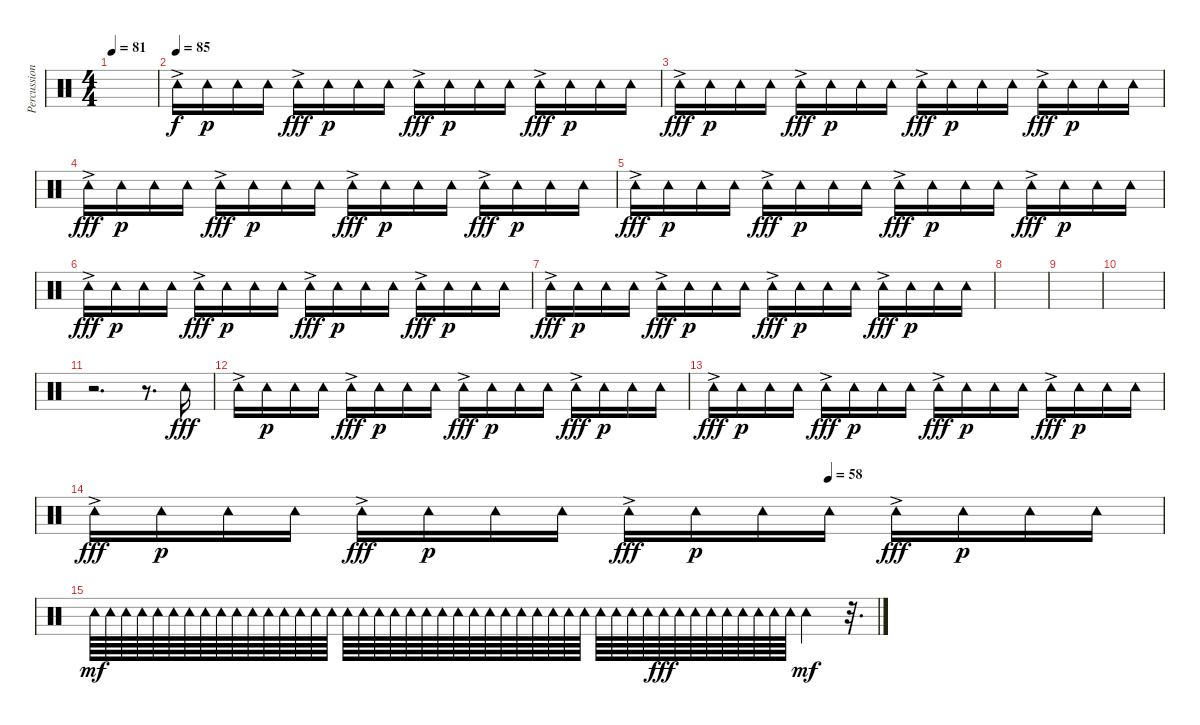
\track ("Percussion" "Percussion") {instrument percussion}
\staff {score}
\articulation defaults
\ts (4 4)
\tempo 81
\clef neutral
\ks c
|
\tempo (85)
"Tambourine (hit)"{ac}.16 "Tambourine (hit)".16{dy p} "Tambourine (hit)".16 "Tambourine (hit)".16 "Tambourine (hit)"{ac}.16{dy fff} "Tambourine (hit)".16{dy p} "Tambourine (hit)".16 "Tambourine (hit)".16 "Tambourine (hit)"{ac}.16{dy fff} "Tambourine (hit)".16{dy p} "Tambourine (hit)".16 "Tambourine (hit)".16 "Tambourine (hit)"{ac}.16{dy fff} "Tambourine (hit)".16{dy p} "Tambourine (hit)".16 "Tambourine (hit)".16 |
"Tambourine (hit)"{ac}.16{dy fff} "Tambourine (hit)".16{dy p} "Tambourine (hit)".16 "Tambourine (hit)".16 "Tambourine (hit)"{ac}.16{dy fff} "Tambourine (hit)".16{dy p} "Tambourine (hit)".16 "Tambourine (hit)".16 "Tambourine (hit)"{ac}.16{dy fff} "Tambourine (hit)".16{dy p} "Tambourine (hit)".16 "Tambourine (hit)".16 "Tambourine (hit)"{ac}.16{dy fff} "Tambourine (hit)".16{dy p} "Tambourine (hit)".16 "Tambourine (hit)".16 |
"Tambourine (hit)"{ac}.16{dy fff} "Tambourine (hit)".16{dy p} "Tambourine (hit)".16 "Tambourine (hit)".16 "Tambourine (hit)"{ac}.16{dy fff} "Tambourine (hit)".16{dy p} "Tambourine (hit)".16 "Tambourine (hit)".16 "Tambourine (hit)"{ac}.16{dy fff} "Tambourine (hit)".16{dy p} "Tambourine (hit)".16 "Tambourine (hit)".16 "Tambourine (hit)"{ac}.16{dy fff} "Tambourine (hit)".16{dy p} "Tambourine (hit)".16 "Tambourine (hit)".16 |
"Tambourine (hit)"{ac}.16{dy fff} "Tambourine (hit)".16{dy p} "Tambourine (hit)".16 "Tambourine (hit)".16 "Tambourine (hit)"{ac}.16{dy fff} "Tambourine (hit)".16{dy p} "Tambourine (hit)".16 "Tambourine (hit)".16 "Tambourine (hit)"{ac}.16{dy fff} "Tambourine (hit)".16{dy p} "Tambourine (hit)".16 "Tambourine (hit)".16 "Tambourine (hit)"{ac}.16{dy fff} "Tambourine (hit)".16{dy p} "Tambourine (hit)".16 "Tambourine (hit)".16 |
"Tambourine (hit)"{ac}.16{dy fff} "Tambourine (hit)".16{dy p} "Tambourine (hit)".16 "Tambourine (hit)".16 "Tambourine (hit)"{ac}.16{dy fff} "Tambourine (hit)".16{dy p} "Tambourine (hit)".16 "Tambourine (hit)".16 "Tambourine (hit)"{ac}.16{dy fff} "Tambourine (hit)".16{dy p} "Tambourine (hit)".16 "Tambourine (hit)".16 "Tambourine (hit)"{ac}.16{dy fff} "Tambourine (hit)".16{dy p} "Tambourine (hit)".16 "Tambourine (hit)".16 |
"Tambourine (hit)"{ac}.16{dy fff} "Tambourine (hit)".16{dy p} "Tambourine (hit)".16 "Tambourine (hit)".16 "Tambourine (hit)"{ac}.16{dy fff} "Tambourine (hit)".16{dy p} "Tambourine (hit)".16 "Tambourine (hit)".16 "Tambourine (hit)"{ac}.16{dy fff} "Tambourine (hit)".16{dy p} "Tambourine (hit)".16 "Tambourine (hit)".16 "Tambourine (hit)"{ac}.16{dy fff} "Tambourine (hit)".16{dy p} "Tambourine (hit)".16 "Tambourine (hit)".16 |
|
|
|
r.2{d} r.8{d} "Tambourine (hit)".16{dy fff} |
"Tambourine (hit)"{ac}.16 "Tambourine (hit)".16{dy p} "Tambourine (hit)".16 "Tambourine (hit)".16 "Tambourine (hit)"{ac}.16{dy fff} "Tambourine (hit)".16{dy p} "Tambourine (hit)".16 "Tambourine (hit)".16 "Tambourine (hit)"{ac}.16{dy fff} "Tambourine (hit)".16{dy p} "Tambourine (hit)".16 "Tambourine (hit)".16 "Tambourine (hit)"{ac}.16{dy fff} "Tambourine (hit)".16{dy p} "Tambourine (hit)".16 "Tambourine (hit)".16 |
"Tambourine (hit)"{ac}.16{dy fff} "Tambourine (hit)".16{dy p} "Tambourine (hit)".16 "Tambourine (hit)".16 "Tambourine (hit)"{ac}.16{dy fff} "Tambourine (hit)".16{dy p} "Tambourine (hit)".16 "Tambourine (hit)".16 "Tambourine (hit)"{ac}.16{dy fff} "Tambourine (hit)".16{dy p} "Tambourine (hit)".16 "Tambourine (hit)".16 "Tambourine (hit)"{ac}.16{dy fff} "Tambourine (hit)".16{dy p} "Tambourine (hit)".16 "Tambourine (hit)".16 |
\tempo (58 0.6875)
"Tambourine (hit)"{ac}.16{dy fff} "Tambourine (hit)".16{dy p} "Tambourine (hit)".16 "Tambourine (hit)".16 "Tambourine (hit)"{ac}.16{dy fff} "Tambourine (hit)".16{dy p} "Tambourine (hit)".16 "Tambourine (hit)".16 "Tambourine (hit)"{ac}.16{dy fff} "Tambourine (hit)".16{dy p} "Tambourine (hit)".16 "Tambourine (hit)".16 "Tambourine (hit)"{ac}.16{dy fff} "Tambourine (hit)".16{dy p} "Tambourine (hit)".16 "Tambourine (hit)".16 |
"Tambourine (hit)".64{dy mf volume 10} "Tambourine (hit)".64 "Tambourine (hit)".64 "Tambourine (hit)".64 "Tambourine (hit)".64 "Tambourine (hit)".64 "Tambourine (hit)".64 "Tambourine (hit)".64 "Tambourine (hit)".64 "Tambourine (hit)".64 "Tambourine (hit)".64 "Tambourine (hit)".64 "Tambourine (hit)".64 "Tambourine (hit)".64 "Tambourine (hit)".64 "Tambourine (hit)".64 "Tambourine (hit)".64 "Tambourine (hit)".64 "Tambourine (hit)".64 "Tambourine (hit)".64 "Tambourine (hit)".64 "Tambourine (hit)".64 "Tambourine (hit)".64 "Tambourine (hit)".64 "Tambourine (hit)".64 "Tambourine (hit)".64 "Tambourine (hit)".64 "Tambourine (hit)".64 "Tambourine (hit)".64 "Tambourine (hit)".64 "Tambourine (hit)".64 "Tambourine (hit)".64 "Tambourine (hit)".64 "Tambourine (hit)".64 "Tambourine (hit)".64 "Tambourine (hit)".64 "Tambourine (hit)".64{dy fff} "Tambourine (hit)".64 "Tambourine (hit)".64 "Tambourine (hit)".64 "Tambourine (hit)".64 "Tambourine (hit)".64 "Tambourine (hit)".64 "Tambourine (hit)".64 "Tambourine (hit)".64 "Tambourine (hit)".4{dy mf} r.32{d}
